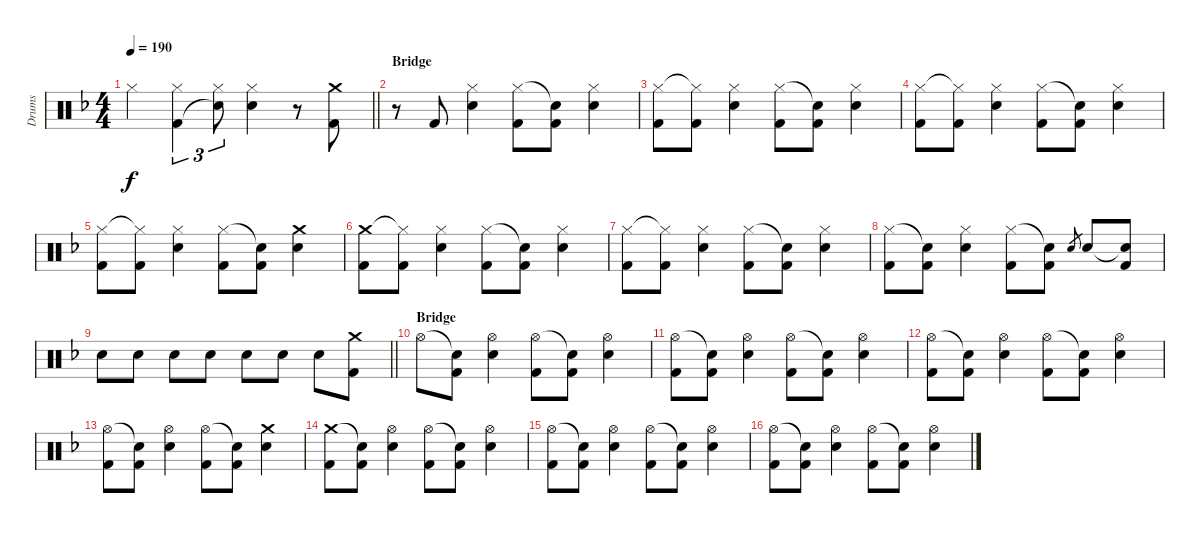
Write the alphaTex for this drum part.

\track ("Drums" "Drums") {instrument percussion}
\staff {score}
\articulation defaults
\ts (4 4)
\tempo 190
\clef neutral
\barLineRight lightlight
\ks dminor "Hi-Hat (closed)".4{dy f}
("Hi-Hat (closed)" "Kick (hit) 2").4{tu (3 2)} ("Hi-Hat (closed)" "Snare (hit)"{t}).8{tu (3 2)} ("Hi-Hat (closed)" "Electric Snare (hit)").4 r.8 ("Crash medium (hit)" "Kick (hit) 2").8 |
\section ("" "Bridge")
r.8 "Kick (hit) 2".8 ("Hi-Hat (closed)" "Electric Snare (hit)").4 ("Hi-Hat (closed)" "Kick (hit) 2").8 ("Snare (hit)"{t} "Kick (hit) 2").8 ("Hi-Hat (closed)" "Electric Snare (hit)").4 |
("Hi-Hat (closed)" "Kick (hit) 2").8 ("Hi-Hat (closed)"{t} "Kick (hit) 2").8 ("Hi-Hat (closed)" "Electric Snare (hit)").4 ("Hi-Hat (closed)" "Kick (hit) 2").8 ("Snare (hit)"{t} "Kick (hit) 2").8 ("Hi-Hat (closed)" "Electric Snare (hit)").4 |
("Hi-Hat (closed)" "Kick (hit) 2").8 ("Hi-Hat (closed)"{t} "Kick (hit) 2").8 ("Hi-Hat (closed)" "Electric Snare (hit)").4 ("Hi-Hat (closed)" "Kick (hit) 2").8 ("Snare (hit)"{t} "Kick (hit) 2").8 ("Hi-Hat (closed)" "Electric Snare (hit)").4 |
("Hi-Hat (closed)" "Kick (hit) 2").8 ("Hi-Hat (closed)"{t} "Kick (hit) 2").8 ("Hi-Hat (closed)" "Electric Snare (hit)").4 ("Hi-Hat (closed)" "Kick (hit) 2").8 ("Snare (hit)"{t} "Kick (hit) 2").8 ("Crash medium (hit)" "Electric Snare (hit)").4 |
("Crash medium (hit)" "Kick (hit) 2").8 ("Hi-Hat (closed)"{t} "Kick (hit) 2").8 ("Hi-Hat (closed)" "Electric Snare (hit)").4 ("Hi-Hat (closed)" "Kick (hit) 2").8 ("Snare (hit)"{t} "Kick (hit) 2").8 ("Hi-Hat (closed)" "Electric Snare (hit)").4 |
("Hi-Hat (closed)" "Kick (hit) 2").8 ("Hi-Hat (closed)"{t} "Kick (hit) 2").8 ("Hi-Hat (closed)" "Electric Snare (hit)").4 ("Hi-Hat (closed)" "Kick (hit) 2").8 ("Snare (hit)"{t} "Kick (hit) 2").8 ("Hi-Hat (closed)" "Electric Snare (hit)").4 |
("Hi-Hat (closed)" "Kick (hit) 2").8 ("Snare (hit)"{t} "Kick (hit) 2").8 ("Hi-Hat (closed)" "Electric Snare (hit)").4 ("Hi-Hat (closed)" "Kick (hit) 2").8 ("Snare (hit)"{t} "Kick (hit) 2").8 "Electric Snare (hit)".8{gr} "Electric Snare (hit)".8 ("Snare (hit)"{t} "Kick (hit) 2").8 |
\barLineRight lightlight "Electric Snare (hit)".8 "Electric Snare (hit)".8 "Electric Snare (hit)".8 "Electric Snare (hit)".8 "Electric Snare (hit)".8 "Electric Snare (hit)".8 "Electric Snare (hit)".8
("Crash medium (hit)" "Kick (hit) 2").8 |
\section ("" "Bridge")
"Hi-Hat (open)".8 ("Snare (hit)"{t} "Kick (hit) 2").8 ("Hi-Hat (open)" "Electric Snare (hit)").4 ("Hi-Hat (open)" "Kick (hit) 2").8 ("Snare (hit)"{t} "Kick (hit) 2").8 ("Hi-Hat (open)" "Electric Snare (hit)").4 |
("Hi-Hat (open)" "Kick (hit) 2").8 ("Snare (hit)"{t} "Kick (hit) 2").8 ("Hi-Hat (open)" "Electric Snare (hit)").4 ("Hi-Hat (open)" "Kick (hit) 2").8 ("Snare (hit)"{t} "Kick (hit) 2").8 ("Hi-Hat (open)" "Electric Snare (hit)").4 |
("Hi-Hat (open)" "Kick (hit) 2").8 ("Snare (hit)"{t} "Kick (hit) 2").8 ("Hi-Hat (open)" "Electric Snare (hit)").4 ("Hi-Hat (open)" "Kick (hit) 2").8 ("Snare (hit)"{t} "Kick (hit) 2").8 ("Hi-Hat (open)" "Electric Snare (hit)").4 |
("Hi-Hat (open)" "Kick (hit) 2").8 ("Snare (hit)"{t} "Kick (hit) 2").8 ("Hi-Hat (open)" "Electric Snare (hit)").4 ("Hi-Hat (open)" "Kick (hit) 2").8 ("Snare (hit)"{t} "Kick (hit) 2").8 ("Crash medium (hit)" "Electric Snare (hit)").4 |
("Crash medium (hit)" "Kick (hit) 2").8 ("Snare (hit)"{t} "Kick (hit) 2").8 ("Hi-Hat (open)" "Electric Snare (hit)").4 ("Hi-Hat (open)" "Kick (hit) 2").8 ("Snare (hit)"{t} "Kick (hit) 2").8 ("Hi-Hat (open)" "Electric Snare (hit)").4 |
("Hi-Hat (open)" "Kick (hit) 2").8 ("Snare (hit)"{t} "Kick (hit) 2").8 ("Hi-Hat (open)" "Electric Snare (hit)").4 ("Hi-Hat (open)" "Kick (hit) 2").8 ("Snare (hit)"{t} "Kick (hit) 2").8 ("Hi-Hat (open)" "Electric Snare (hit)").4 |
("Hi-Hat (open)" "Kick (hit) 2").8 ("Snare (hit)"{t} "Kick (hit) 2").8 ("Hi-Hat (open)" "Electric Snare (hit)").4 ("Hi-Hat (open)" "Kick (hit) 2").8 ("Snare (hit)"{t} "Kick (hit) 2").8 ("Hi-Hat (open)" "Electric Snare (hit)").4
